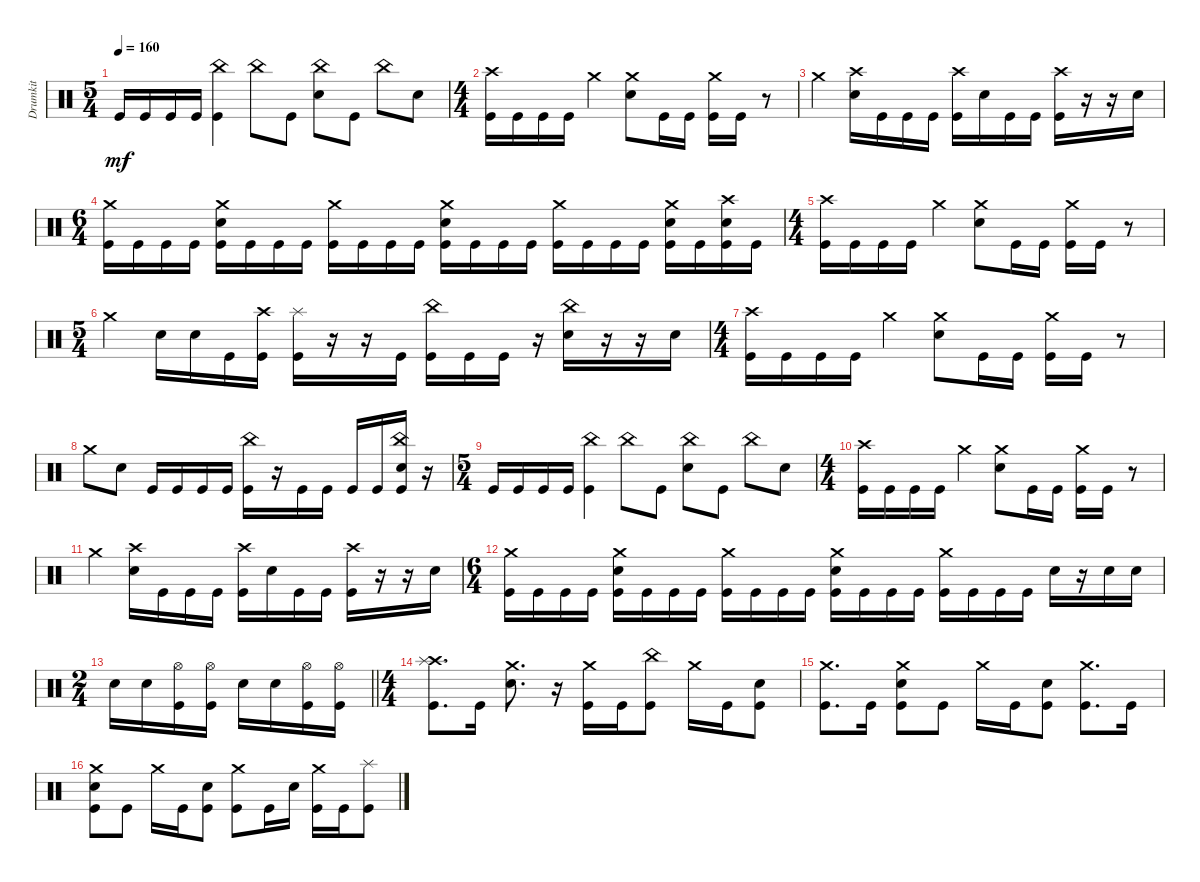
\track ("Drumkit" "Drumkit") {instrument percussion}
\staff {score}
\articulation defaults
\ts (5 4)
\tempo 160
\clef neutral
\ks c "Kick (hit)".16{dy mf} "Kick (hit)".16 "Kick (hit)".16 "Kick (hit)".16
("Kick (hit)" "China (hit)").4 "China (hit)".8 "Kick (hit)".8 ("Snare (hit) 2" "China (hit)").8 "Kick (hit)".8 "China (hit)".8 "Snare (hit) 2".8 |
\ts (4 4)
("Kick (hit)" "Crash high (hit)").16 "Kick (hit)".16 "Kick (hit)".16 "Kick (hit)".16 "Crash medium (hit)".4 ("Crash medium (hit)" "Snare (hit) 2").8 "Kick (hit)".16 "Kick (hit)".16 ("Kick (hit)" "Crash medium (hit)").16 "Kick (hit)".16 r.8 |
"Crash medium (hit)".4 ("Snare (hit) 2" "Crash high (hit)").16 "Kick (hit)".16 "Kick (hit)".16 "Kick (hit)".16 ("Kick (hit)" "Crash high (hit)").16 "Snare (hit) 2".16 "Kick (hit)".16 "Kick (hit)".16 ("Kick (hit)" "Crash high (hit)").16 r.16 r.16 "Snare (hit) 2".16 |
\ts (6 4)
("Crash medium (hit)" "Kick (hit)").16 "Kick (hit)".16 "Kick (hit)".16 "Kick (hit)".16 ("Kick (hit)" "Crash medium (hit)" "Snare (hit) 2").16 "Kick (hit)".16 "Kick (hit)".16 "Kick (hit)".16 ("Kick (hit)" "Crash medium (hit)").16 "Kick (hit)".16 "Kick (hit)".16 "Kick (hit)".16 ("Kick (hit)" "Crash medium (hit)" "Snare (hit) 2").16 "Kick (hit)".16 "Kick (hit)".16 "Kick (hit)".16 ("Kick (hit)" "Crash medium (hit)").16 "Kick (hit)".16 "Kick (hit)".16 "Kick (hit)".16 ("Kick (hit)" "Crash medium (hit)" "Snare (hit) 2").16 "Kick (hit)".16 ("Kick (hit)" "Snare (hit) 2" "Crash high (hit)").16 "Kick (hit)".16 |
\ts (4 4)
("Kick (hit)" "Crash high (hit)").16 "Kick (hit)".16 "Kick (hit)".16 "Kick (hit)".16 "Crash medium (hit)".4 ("Crash medium (hit)" "Snare (hit) 2").8 "Kick (hit)".16 "Kick (hit)".16 ("Kick (hit)" "Crash medium (hit)").16 "Kick (hit)".16 r.8 |
\ts (5 4)
"Crash medium (hit)".4 "Snare (hit) 2".16 "Snare (hit) 2".16 "Kick (hit)".16 ("Kick (hit)" "Crash high (hit)").16 ("Kick (hit)" "Splash (hit)").16 r.16 r.16 "Kick (hit)".16 ("Kick (hit)" "China (hit)").16 "Kick (hit)".16 "Kick (hit)".16 r.16 ("Snare (hit) 2" "China (hit)").16 r.16 r.16 "Snare (hit) 2".16 |
\ts (4 4)
("Kick (hit)" "Crash high (hit)").16 "Kick (hit)".16 "Kick (hit)".16 "Kick (hit)".16 "Crash medium (hit)".4 ("Crash medium (hit)" "Snare (hit) 2").8 "Kick (hit)".16 "Kick (hit)".16 ("Kick (hit)" "Crash medium (hit)").16 "Kick (hit)".16 r.8 |
"Crash medium (hit)".8 "Snare (hit) 2".8 "Kick (hit)".16 "Kick (hit)".16 "Kick (hit)".16 "Kick (hit)".16 ("Kick (hit)" "China (hit)").16 r.16 "Kick (hit)".16 "Kick (hit)".16 "Kick (hit)".16 "Kick (hit)".16 ("Kick (hit)" "China (hit)" "Snare (hit) 2").16 r.16 |
\ts (5 4)
"Kick (hit)".16 "Kick (hit)".16 "Kick (hit)".16 "Kick (hit)".16 ("Kick (hit)" "China (hit)").4 "China (hit)".8 "Kick (hit)".8 ("Snare (hit) 2" "China (hit)").8 "Kick (hit)".8 "China (hit)".8 "Snare (hit) 2".8 |
\ts (4 4)
("Kick (hit)" "Crash high (hit)").16 "Kick (hit)".16 "Kick (hit)".16 "Kick (hit)".16 "Crash medium (hit)".4 ("Crash medium (hit)" "Snare (hit) 2").8 "Kick (hit)".16 "Kick (hit)".16 ("Kick (hit)" "Crash medium (hit)").16 "Kick (hit)".16 r.8 |
"Crash medium (hit)".4 ("Snare (hit) 2" "Crash high (hit)").16 "Kick (hit)".16 "Kick (hit)".16 "Kick (hit)".16 ("Kick (hit)" "Crash high (hit)").16 "Snare (hit) 2".16 "Kick (hit)".16 "Kick (hit)".16 ("Kick (hit)" "Crash high (hit)").16 r.16 r.16 "Snare (hit) 2".16 |
\ts (6 4)
("Crash medium (hit)" "Kick (hit)").16 "Kick (hit)".16 "Kick (hit)".16 "Kick (hit)".16 ("Kick (hit)" "Crash medium (hit)" "Snare (hit) 2").16 "Kick (hit)".16 "Kick (hit)".16 "Kick (hit)".16 ("Kick (hit)" "Crash medium (hit)").16 "Kick (hit)".16 "Kick (hit)".16 "Kick (hit)".16 ("Kick (hit)" "Crash medium (hit)" "Snare (hit) 2").16 "Kick (hit)".16 "Kick (hit)".16 "Kick (hit)".16 ("Kick (hit)" "Crash medium (hit)").16 "Kick (hit)".16 "Kick (hit)".16 "Kick (hit)".16 "Snare (hit) 2".16 r.16 "Snare (hit) 2".16 "Snare (hit) 2".16 |
\ts (2 4)
\barLineRight lightlight "Snare (hit) 2".16 "Snare (hit) 2".16
("Kick (hit)" "Hi-Hat (open)").16 ("Kick (hit)" "Hi-Hat (open)").16 "Snare (hit) 2".16 "Snare (hit) 2".16 ("Kick (hit)" "Hi-Hat (open)").16 ("Kick (hit)" "Hi-Hat (open)").16 |
\ts (4 4)
("Kick (hit)" "Crash high (hit)" "Splash (hit)").8{d} "Kick (hit)".16 ("Snare (hit) 2" "Crash medium (hit)").8{d} r.16 ("Kick (hit)" "Crash medium (hit)").16 "Kick (hit)".16 ("Kick (hit)" "China (hit)").8 "Crash medium (hit)".16 "Kick (hit)".16 ("Snare (hit) 2" "Kick (hit)").8 |
("Kick (hit)" "Crash medium (hit)").8{d} "Kick (hit)".16 ("Snare (hit) 2" "Kick (hit)" "Crash medium (hit)").8 "Kick (hit)".8 "Crash medium (hit)".16 "Kick (hit)".16 ("Snare (hit) 2" "Kick (hit)").8 ("Kick (hit)" "Crash medium (hit)").8{d} "Kick (hit)".16 |
("Snare (hit) 2" "Kick (hit)" "Crash medium (hit)").8 "Kick (hit)".8 "Crash medium (hit)".16 "Kick (hit)".16 ("Snare (hit) 2" "Kick (hit)").8 ("Kick (hit)" "Crash medium (hit)").8 "Kick (hit)".16 "Snare (hit) 2".16 ("Kick (hit)" "Crash medium (hit)").16 "Kick (hit)".16 ("Kick (hit)" "Splash (hit)").8
